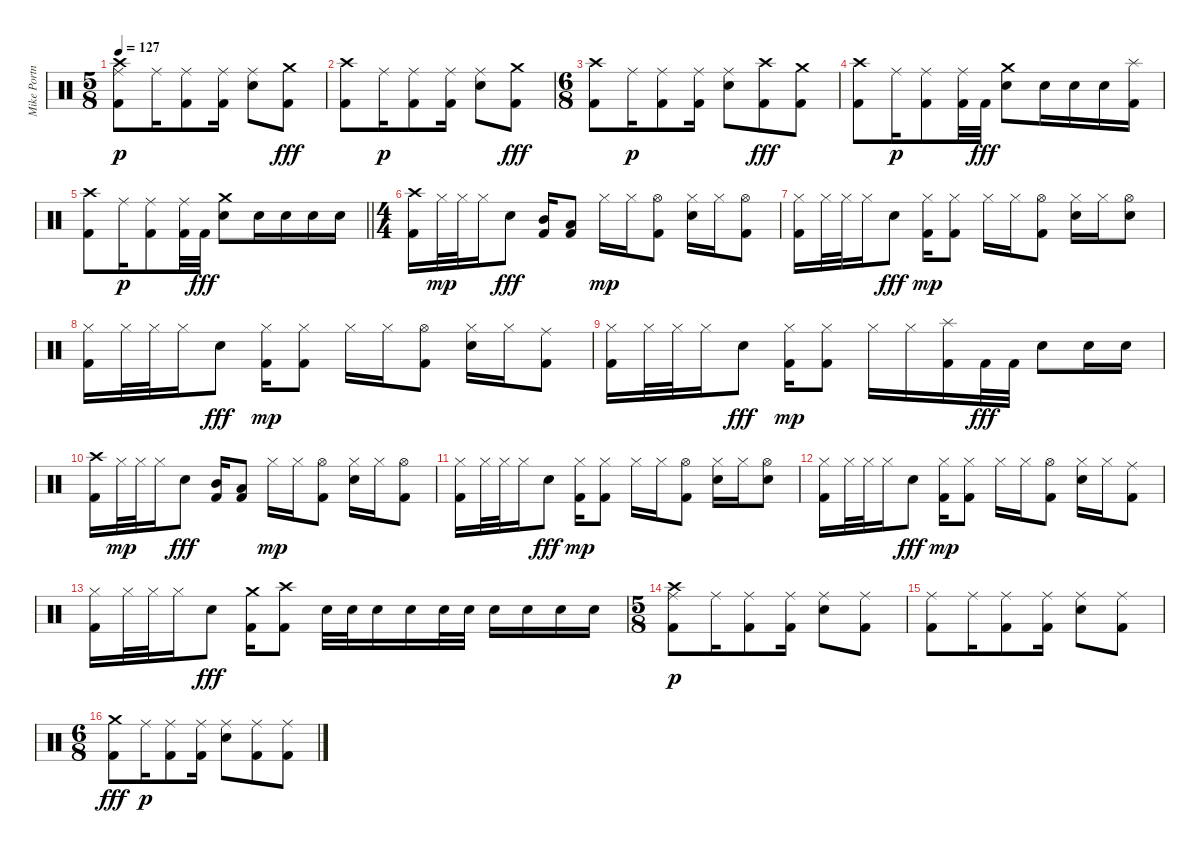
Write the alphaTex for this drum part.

\track ("Mike Portnoy" "Mike Portn") {instrument percussion}
\staff {score}
\articulation defaults
\ts (5 8)
\tempo 127
\clef neutral
\ks c
("Kick (hit) 2" "Ride (middle)" "Crash high (hit)").8{dy p} "Ride (middle)".16 ("Kick (hit) 2" "Ride (middle)").8 ("Kick (hit) 2" "Ride (middle)").16 ("Electric Snare (hit)" "Ride (middle)").8 ("Kick (hit) 2" "Crash medium (hit)").8{dy fff} |
("Kick (hit) 2" "Crash high (hit)").8 "Ride (middle)".16{dy p} ("Kick (hit) 2" "Ride (middle)").8 ("Kick (hit) 2" "Ride (middle)").16 ("Electric Snare (hit)" "Ride (middle)").8 ("Kick (hit) 2" "Crash medium (hit)").8{dy fff} |
\ts (6 8)
("Kick (hit) 2" "Crash high (hit)").8 "Ride (middle)".16{dy p} ("Kick (hit) 2" "Ride (middle)").8 ("Kick (hit) 2" "Ride (middle)").16 ("Electric Snare (hit)" "Ride (middle)").8 ("Kick (hit) 2" "Crash high (hit)").8{dy fff} ("Kick (hit) 2" "Crash medium (hit)").8 |
("Kick (hit) 2" "Crash high (hit)").8 "Ride (middle)".16{dy p} ("Kick (hit) 2" "Ride (middle)").8 ("Kick (hit) 2" "Ride (middle)").32 "Kick (hit) 2".32{dy fff} ("Electric Snare (hit)" "Crash medium (hit)").8 "Electric Snare (hit)".16 "Electric Snare (hit)".16 "Electric Snare (hit)".16 ("Kick (hit) 2" "Splash (hit)").16 |
\barLineRight lightlight
("Kick (hit) 2" "Crash high (hit)").8 "Ride (middle)".16{dy p} ("Kick (hit) 2" "Ride (middle)").8 ("Kick (hit) 2" "Ride (middle)").32 "Kick (hit) 2".32{dy fff} ("Electric Snare (hit)" "Crash medium (hit)").8 "Electric Snare (hit)".16 "Electric Snare (hit)".16 "Electric Snare (hit)".16 "Electric Snare (hit)".16 |
\ts (4 4)
("Kick (hit) 2" "Crash high (hit)").16 "Hi-Hat (closed)".32{dy mp} "Hi-Hat (closed)".32 "Hi-Hat (closed)".16 "Electric Snare (hit)".8{dy fff} ("Kick (hit) 2" "Mid Tom (hit)").16 ("Kick (hit) 2" "Low Tom (hit)").8 "Hi-Hat (closed)".16{dy mp} "Hi-Hat (closed)".16 ("Kick (hit) 2" "Hi-Hat (open)").8 ("Electric Snare (hit)" "Hi-Hat (closed)").16 "Hi-Hat (closed)".16 ("Kick (hit) 2" "Hi-Hat (open)").8 |
("Kick (hit) 2" "Hi-Hat (closed)").16 "Hi-Hat (closed)".32 "Hi-Hat (closed)".32 "Hi-Hat (closed)".16 "Electric Snare (hit)".8{dy fff} ("Kick (hit) 2" "Hi-Hat (closed)").16{dy mp} ("Kick (hit) 2" "Hi-Hat (closed)").8 "Hi-Hat (closed)".16 "Hi-Hat (closed)".16 ("Kick (hit) 2" "Hi-Hat (open)").8 ("Electric Snare (hit)" "Hi-Hat (closed)").16 "Hi-Hat (closed)".16 ("Electric Snare (hit)" "Hi-Hat (open)").8 |
("Kick (hit) 2" "Hi-Hat (closed)").16 "Hi-Hat (closed)".32 "Hi-Hat (closed)".32 "Hi-Hat (closed)".16 "Electric Snare (hit)".8{dy fff} ("Kick (hit) 2" "Hi-Hat (closed)").16{dy mp} ("Kick (hit) 2" "Hi-Hat (closed)").8 "Hi-Hat (closed)".16 "Hi-Hat (closed)".16 ("Kick (hit) 2" "Hi-Hat (open)").8 ("Electric Snare (hit)" "Hi-Hat (closed)").16 "Hi-Hat (closed)".16 ("Kick (hit) 2" "Ride (middle)").8 |
("Kick (hit) 2" "Hi-Hat (closed)").16 "Hi-Hat (closed)".32 "Hi-Hat (closed)".32 "Hi-Hat (closed)".16 "Electric Snare (hit)".8{dy fff} ("Kick (hit) 2" "Hi-Hat (closed)").16{dy mp} ("Kick (hit) 2" "Hi-Hat (closed)").8 "Hi-Hat (closed)".16 "Hi-Hat (closed)".16 ("Kick (hit) 2" "Splash (hit)").16 "Kick (hit) 2".32{dy fff} "Kick (hit) 2".32 "Electric Snare (hit)".8 "Electric Snare (hit)".16 "Electric Snare (hit)".16 |
("Kick (hit) 2" "Crash high (hit)").16 "Hi-Hat (closed)".32{dy mp} "Hi-Hat (closed)".32 "Hi-Hat (closed)".16 "Electric Snare (hit)".8{dy fff} ("Kick (hit) 2" "Mid Tom (hit)").16 ("Kick (hit) 2" "Low Tom (hit)").8 "Hi-Hat (closed)".16{dy mp} "Hi-Hat (closed)".16 ("Kick (hit) 2" "Hi-Hat (open)").8 ("Electric Snare (hit)" "Hi-Hat (closed)").16 "Hi-Hat (closed)".16 ("Kick (hit) 2" "Hi-Hat (open)").8 |
("Kick (hit) 2" "Hi-Hat (closed)").16 "Hi-Hat (closed)".32 "Hi-Hat (closed)".32 "Hi-Hat (closed)".16 "Electric Snare (hit)".8{dy fff} ("Kick (hit) 2" "Hi-Hat (closed)").16{dy mp} ("Kick (hit) 2" "Hi-Hat (closed)").8 "Hi-Hat (closed)".16 "Hi-Hat (closed)".16 ("Kick (hit) 2" "Hi-Hat (open)").8 ("Electric Snare (hit)" "Hi-Hat (closed)").16 "Hi-Hat (closed)".16 ("Electric Snare (hit)" "Hi-Hat (open)").8 |
("Kick (hit) 2" "Hi-Hat (closed)").16 "Hi-Hat (closed)".32 "Hi-Hat (closed)".32 "Hi-Hat (closed)".16 "Electric Snare (hit)".8{dy fff} ("Kick (hit) 2" "Hi-Hat (closed)").16{dy mp} ("Kick (hit) 2" "Hi-Hat (closed)").8 "Hi-Hat (closed)".16 "Hi-Hat (closed)".16 ("Kick (hit) 2" "Hi-Hat (open)").8 ("Electric Snare (hit)" "Hi-Hat (closed)").16 "Hi-Hat (closed)".16 ("Kick (hit) 2" "Ride (middle)").8 |
("Kick (hit) 2" "Hi-Hat (closed)").16 "Hi-Hat (closed)".32 "Hi-Hat (closed)".32 "Hi-Hat (closed)".16 "Electric Snare (hit)".8{dy fff} ("Kick (hit) 2" "Crash medium (hit)").16 ("Kick (hit) 2" "Crash high (hit)").8 "Electric Snare (hit)".32 "Electric Snare (hit)".32 "Electric Snare (hit)".16 "Electric Snare (hit)".16 "Electric Snare (hit)".32 "Electric Snare (hit)".32 "Electric Snare (hit)".16 "Electric Snare (hit)".16 "Electric Snare (hit)".16 "Electric Snare (hit)".16 |
\ts (5 8)
("Kick (hit) 2" "Ride (middle)" "Crash high (hit)").8{dy p} "Ride (middle)".16 ("Kick (hit) 2" "Ride (middle)").8 ("Kick (hit) 2" "Ride (middle)").16 ("Electric Snare (hit)" "Ride (middle)").8 ("Kick (hit) 2" "Ride (middle)").8 |
("Kick (hit) 2" "Ride (middle)").8 "Ride (middle)".16 ("Kick (hit) 2" "Ride (middle)").8 ("Kick (hit) 2" "Ride (middle)").16 ("Electric Snare (hit)" "Ride (middle)").8 ("Kick (hit) 2" "Ride (middle)").8 |
\ts (6 8)
("Kick (hit) 2" "Crash medium (hit)").8{dy fff} "Ride (middle)".16{dy p} ("Kick (hit) 2" "Ride (middle)").8 ("Kick (hit) 2" "Ride (middle)").16 ("Electric Snare (hit)" "Ride (middle)").8 ("Kick (hit) 2" "Ride (middle)").8 ("Kick (hit) 2" "Ride (middle)").8
